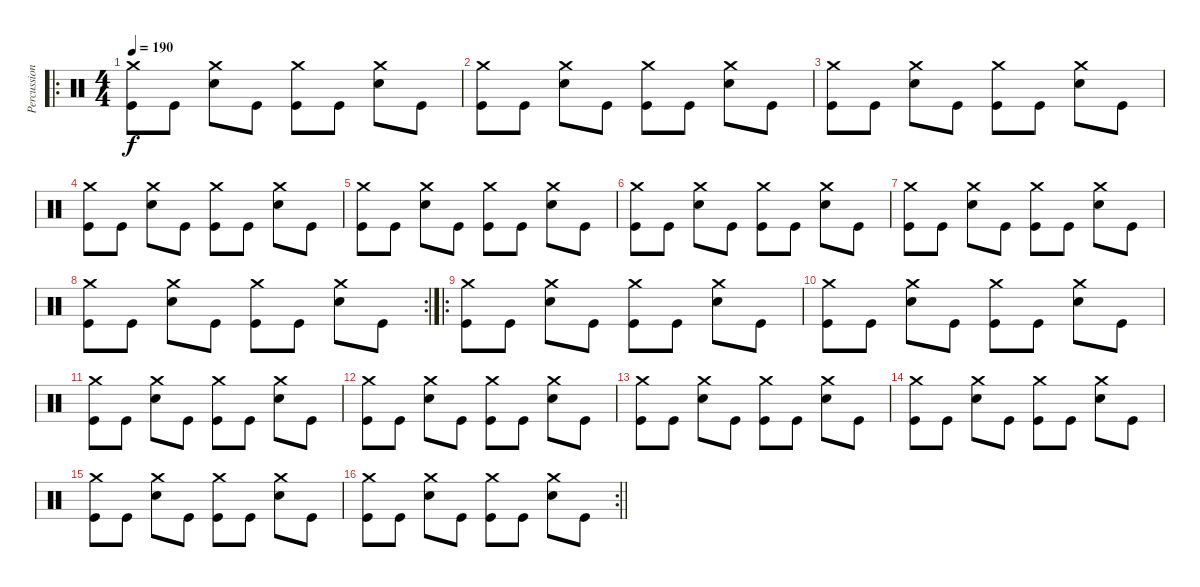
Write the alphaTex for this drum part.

\track ("Percussion" "Percussion") {instrument percussion}
\staff {score}
\articulation defaults
\ro
\ts (4 4)
\tempo 190
\clef neutral
\ks c
("Crash medium (hit)" "Kick (hit)").8{dy f} "Kick (hit)".8 ("Crash medium (hit)" "Snare (hit) 2").8 "Kick (hit)".8 ("Crash medium (hit)" "Kick (hit)").8 "Kick (hit)".8 ("Crash medium (hit)" "Snare (hit) 2").8 "Kick (hit)".8 |
("Crash medium (hit)" "Kick (hit)").8 "Kick (hit)".8 ("Crash medium (hit)" "Snare (hit) 2").8 "Kick (hit)".8 ("Crash medium (hit)" "Kick (hit)").8 "Kick (hit)".8 ("Crash medium (hit)" "Snare (hit) 2").8 "Kick (hit)".8 |
("Crash medium (hit)" "Kick (hit)").8 "Kick (hit)".8 ("Crash medium (hit)" "Snare (hit) 2").8 "Kick (hit)".8 ("Crash medium (hit)" "Kick (hit)").8 "Kick (hit)".8 ("Crash medium (hit)" "Snare (hit) 2").8 "Kick (hit)".8 |
("Crash medium (hit)" "Kick (hit)").8 "Kick (hit)".8 ("Crash medium (hit)" "Snare (hit) 2").8 "Kick (hit)".8 ("Crash medium (hit)" "Kick (hit)").8 "Kick (hit)".8 ("Crash medium (hit)" "Snare (hit) 2").8 "Kick (hit)".8 |
("Crash medium (hit)" "Kick (hit)").8 "Kick (hit)".8 ("Crash medium (hit)" "Snare (hit) 2").8 "Kick (hit)".8 ("Crash medium (hit)" "Kick (hit)").8 "Kick (hit)".8 ("Crash medium (hit)" "Snare (hit) 2").8 "Kick (hit)".8 |
("Crash medium (hit)" "Kick (hit)").8 "Kick (hit)".8 ("Crash medium (hit)" "Snare (hit) 2").8 "Kick (hit)".8 ("Crash medium (hit)" "Kick (hit)").8 "Kick (hit)".8 ("Crash medium (hit)" "Snare (hit) 2").8 "Kick (hit)".8 |
("Crash medium (hit)" "Kick (hit)").8 "Kick (hit)".8 ("Crash medium (hit)" "Snare (hit) 2").8 "Kick (hit)".8 ("Crash medium (hit)" "Kick (hit)").8 "Kick (hit)".8 ("Crash medium (hit)" "Snare (hit) 2").8 "Kick (hit)".8 |
\rc 2
("Crash medium (hit)" "Kick (hit)").8 "Kick (hit)".8 ("Crash medium (hit)" "Snare (hit) 2").8 "Kick (hit)".8 ("Crash medium (hit)" "Kick (hit)").8 "Kick (hit)".8 ("Crash medium (hit)" "Snare (hit) 2").8 "Kick (hit)".8 |
\ro
("Crash medium (hit)" "Kick (hit)").8 "Kick (hit)".8 ("Crash medium (hit)" "Snare (hit) 2").8 "Kick (hit)".8 ("Crash medium (hit)" "Kick (hit)").8 "Kick (hit)".8 ("Crash medium (hit)" "Snare (hit) 2").8 "Kick (hit)".8 |
("Crash medium (hit)" "Kick (hit)").8 "Kick (hit)".8 ("Crash medium (hit)" "Snare (hit) 2").8 "Kick (hit)".8 ("Crash medium (hit)" "Kick (hit)").8 "Kick (hit)".8 ("Crash medium (hit)" "Snare (hit) 2").8 "Kick (hit)".8 |
("Crash medium (hit)" "Kick (hit)").8 "Kick (hit)".8 ("Crash medium (hit)" "Snare (hit) 2").8 "Kick (hit)".8 ("Crash medium (hit)" "Kick (hit)").8 "Kick (hit)".8 ("Crash medium (hit)" "Snare (hit) 2").8 "Kick (hit)".8 |
("Crash medium (hit)" "Kick (hit)").8 "Kick (hit)".8 ("Crash medium (hit)" "Snare (hit) 2").8 "Kick (hit)".8 ("Crash medium (hit)" "Kick (hit)").8 "Kick (hit)".8 ("Crash medium (hit)" "Snare (hit) 2").8 "Kick (hit)".8 |
("Crash medium (hit)" "Kick (hit)").8 "Kick (hit)".8 ("Crash medium (hit)" "Snare (hit) 2").8 "Kick (hit)".8 ("Crash medium (hit)" "Kick (hit)").8 "Kick (hit)".8 ("Crash medium (hit)" "Snare (hit) 2").8 "Kick (hit)".8 |
("Crash medium (hit)" "Kick (hit)").8 "Kick (hit)".8 ("Crash medium (hit)" "Snare (hit) 2").8 "Kick (hit)".8 ("Crash medium (hit)" "Kick (hit)").8 "Kick (hit)".8 ("Crash medium (hit)" "Snare (hit) 2").8 "Kick (hit)".8 |
("Crash medium (hit)" "Kick (hit)").8 "Kick (hit)".8 ("Crash medium (hit)" "Snare (hit) 2").8 "Kick (hit)".8 ("Crash medium (hit)" "Kick (hit)").8 "Kick (hit)".8 ("Crash medium (hit)" "Snare (hit) 2").8 "Kick (hit)".8 |
\rc 2
\barLineRight lightlight
("Crash medium (hit)" "Kick (hit)").8 "Kick (hit)".8 ("Crash medium (hit)" "Snare (hit) 2").8 "Kick (hit)".8 ("Crash medium (hit)" "Kick (hit)").8 "Kick (hit)".8 ("Crash medium (hit)" "Snare (hit) 2").8 "Kick (hit)".8
